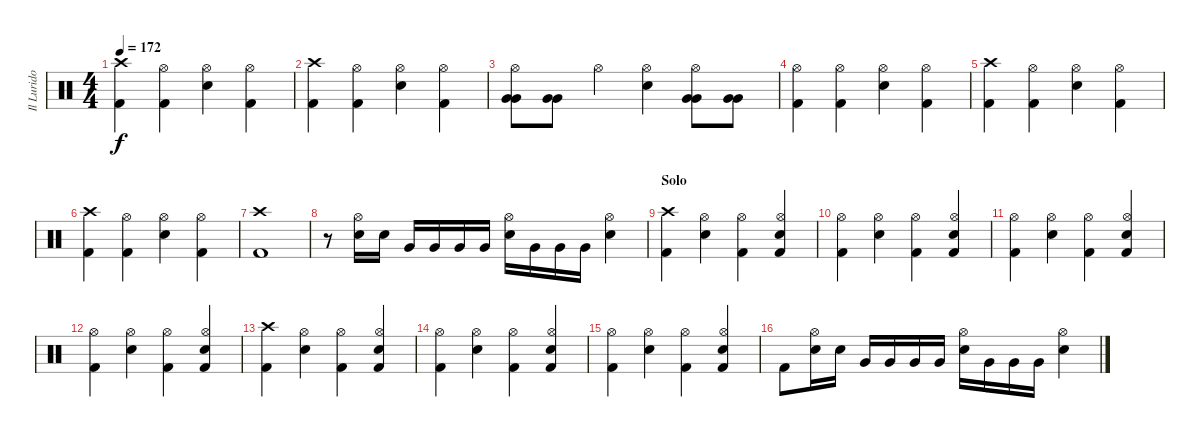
\track ("Il Lurido Cavernicolo (Drums)" "Il Lurido ") {instrument percussion}
\staff {score}
\articulation defaults
\ts (4 4)
\tempo 172
\clef neutral
\ks c
("Crash high (hit)" "Kick (hit) 2").4{dy f} ("Hi-Hat (open)" "Kick (hit) 2").4 ("Hi-Hat (open)" "Electric Snare (hit)").4 ("Hi-Hat (open)" "Kick (hit) 2").4 |
("Crash high (hit)" "Kick (hit) 2").4 ("Hi-Hat (open)" "Kick (hit) 2").4 ("Hi-Hat (open)" "Electric Snare (hit)").4 ("Hi-Hat (open)" "Kick (hit) 2").4 |
("Hi-Hat (open)" "Very Low Tom (hit)" "Very Low Tom (hit)").8 ("Very Low Tom (hit)" "Very Low Tom (hit)").8 "Hi-Hat (open)".4 ("Hi-Hat (open)" "Electric Snare (hit)").4 ("Hi-Hat (open)" "Very Low Tom (hit)" "Very Low Tom (hit)").8 ("Very Low Tom (hit)" "Very Low Tom (hit)").8 |
("Hi-Hat (open)" "Kick (hit) 2").4 ("Hi-Hat (open)" "Kick (hit) 2").4 ("Hi-Hat (open)" "Electric Snare (hit)").4 ("Hi-Hat (open)" "Kick (hit) 2").4 |
("Crash high (hit)" "Kick (hit) 2").4 ("Hi-Hat (open)" "Kick (hit) 2").4 ("Hi-Hat (open)" "Electric Snare (hit)").4 ("Hi-Hat (open)" "Kick (hit) 2").4 |
("Crash high (hit)" "Kick (hit) 2").4 ("Hi-Hat (open)" "Kick (hit) 2").4 ("Hi-Hat (open)" "Electric Snare (hit)").4 ("Hi-Hat (open)" "Kick (hit) 2").4 |
("Crash high (hit)" "Kick (hit) 2").1 |
r.8 ("Hi-Hat (open)" "Electric Snare (hit)").16 "Electric Snare (hit)".16 "Very Low Tom (hit)".16 "Very Low Tom (hit)".16 "Very Low Tom (hit)".16 "Very Low Tom (hit)".16 ("Hi-Hat (open)" "Electric Snare (hit)").16 "Very Low Tom (hit)".16 "Very Low Tom (hit)".16 "Very Low Tom (hit)".16 ("Hi-Hat (open)" "Electric Snare (hit)").4 |
\section ("" "Solo")
("Crash high (hit)" "Kick (hit) 2").4 ("Hi-Hat (open)" "Electric Snare (hit)").4 ("Hi-Hat (open)" "Kick (hit) 2").4 ("Hi-Hat (open)" "Electric Snare (hit)" "Kick (hit) 2").4 |
("Hi-Hat (open)" "Kick (hit) 2").4 ("Hi-Hat (open)" "Electric Snare (hit)").4 ("Hi-Hat (open)" "Kick (hit) 2").4 ("Hi-Hat (open)" "Electric Snare (hit)" "Kick (hit) 2").4 |
("Hi-Hat (open)" "Kick (hit) 2").4 ("Hi-Hat (open)" "Electric Snare (hit)").4 ("Hi-Hat (open)" "Kick (hit) 2").4 ("Hi-Hat (open)" "Electric Snare (hit)" "Kick (hit) 2").4 |
("Hi-Hat (open)" "Kick (hit) 2").4 ("Hi-Hat (open)" "Electric Snare (hit)").4 ("Hi-Hat (open)" "Kick (hit) 2").4 ("Hi-Hat (open)" "Electric Snare (hit)" "Kick (hit) 2").4 |
("Crash high (hit)" "Kick (hit) 2").4 ("Hi-Hat (open)" "Electric Snare (hit)").4 ("Hi-Hat (open)" "Kick (hit) 2").4 ("Hi-Hat (open)" "Electric Snare (hit)" "Kick (hit) 2").4 |
("Hi-Hat (open)" "Kick (hit) 2").4 ("Hi-Hat (open)" "Electric Snare (hit)").4 ("Hi-Hat (open)" "Kick (hit) 2").4 ("Hi-Hat (open)" "Electric Snare (hit)" "Kick (hit) 2").4 |
("Hi-Hat (open)" "Kick (hit) 2").4 ("Hi-Hat (open)" "Electric Snare (hit)").4 ("Hi-Hat (open)" "Kick (hit) 2").4 ("Hi-Hat (open)" "Electric Snare (hit)" "Kick (hit) 2").4 |
"Kick (hit) 2".8 ("Hi-Hat (open)" "Electric Snare (hit)").16 "Electric Snare (hit)".16 "Very Low Tom (hit)".16 "Very Low Tom (hit)".16 "Very Low Tom (hit)".16 "Very Low Tom (hit)".16 ("Hi-Hat (open)" "Electric Snare (hit)").16 "Very Low Tom (hit)".16 "Very Low Tom (hit)".16 "Very Low Tom (hit)".16 ("Hi-Hat (open)" "Electric Snare (hit)").4
